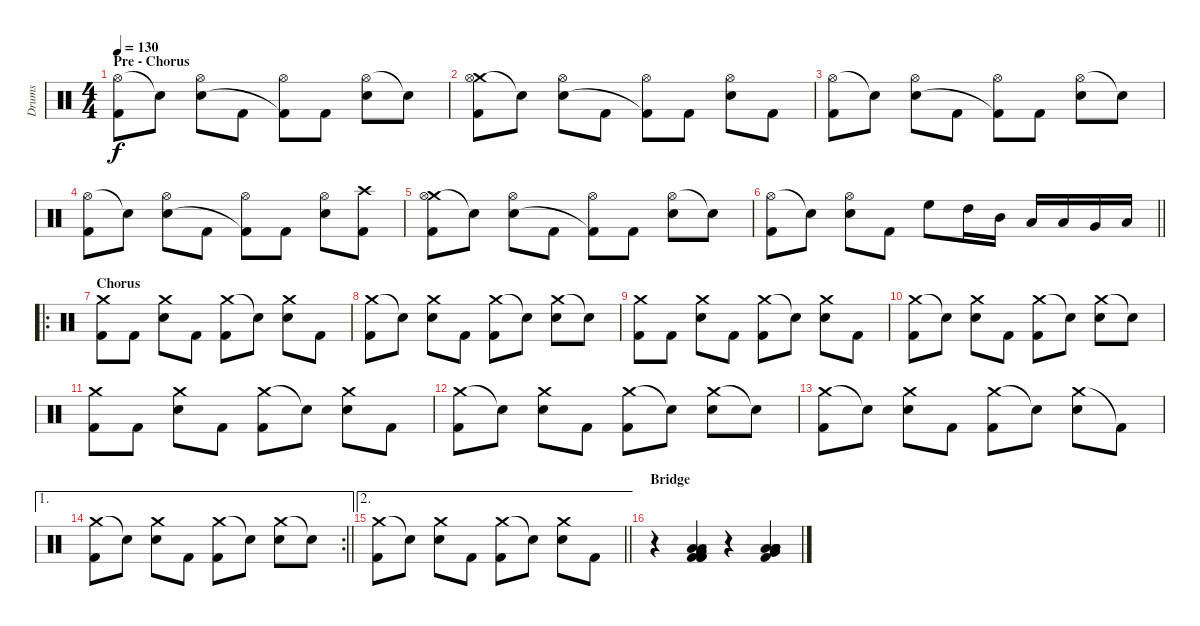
\track ("Drums" "Drums") {instrument percussion}
\staff {score}
\articulation defaults
\ts (4 4)
\section ("" "Pre - Chorus")
\tempo 130
\clef neutral
\ks c
("Hi-Hat (open)" "Kick (hit) 2").8{dy f} "Snare (hit)"{t}.8 ("Hi-Hat (open)" "Electric Snare (hit)").8 "Kick (hit) 2".8 ("Hi-Hat (open)" "Kick (hit) 2"{t}).8 "Kick (hit) 2".8 ("Hi-Hat (open)" "Electric Snare (hit)").8 "Snare (hit)"{t}.8 |
("Crash medium (hit)" "Hi-Hat (open)" "Kick (hit) 2").8 "Snare (hit)"{t}.8 ("Hi-Hat (open)" "Electric Snare (hit)").8 "Kick (hit) 2".8 ("Hi-Hat (open)" "Kick (hit) 2"{t}).8 "Kick (hit) 2".8 ("Hi-Hat (open)" "Electric Snare (hit)").8 "Kick (hit) 2".8 |
("Hi-Hat (open)" "Kick (hit) 2").8 "Snare (hit)"{t}.8 ("Hi-Hat (open)" "Electric Snare (hit)").8 "Kick (hit) 2".8 ("Hi-Hat (open)" "Kick (hit) 2"{t}).8 "Kick (hit) 2".8 ("Hi-Hat (open)" "Electric Snare (hit)").8 "Snare (hit)"{t}.8 |
("Hi-Hat (open)" "Kick (hit) 2").8 "Snare (hit)"{t}.8 ("Hi-Hat (open)" "Electric Snare (hit)").8 "Kick (hit) 2".8 ("Hi-Hat (open)" "Kick (hit) 2"{t}).8 "Kick (hit) 2".8 ("Hi-Hat (open)" "Electric Snare (hit)").8 ("Crash high (hit)" "Kick (hit) 2").8 |
("Crash medium (hit)" "Hi-Hat (open)" "Kick (hit) 2").8 "Snare (hit)"{t}.8 ("Hi-Hat (open)" "Electric Snare (hit)").8 "Kick (hit) 2".8 ("Hi-Hat (open)" "Kick (hit) 2"{t}).8 "Kick (hit) 2".8 ("Hi-Hat (open)" "Electric Snare (hit)").8 "Snare (hit)"{t}.8 |
\barLineRight lightlight
("Hi-Hat (open)" "Kick (hit) 2").8 "Snare (hit)"{t}.8 ("Hi-Hat (open)" "Electric Snare (hit)").8 "Kick (hit) 2".8 "High Floor Tom (hit)".8 "High Tom (hit)".16 "Mid Tom (hit)".16 "Low Tom (hit)".16 "Low Tom (hit)".16 "Very Low Tom (hit)".16 "Low Floor Tom (hit)".16 |
\ro
\section ("" "Chorus")
("Crash medium (hit)" "Kick (hit) 2").8 "Kick (hit) 2".8 ("Crash medium (hit)" "Electric Snare (hit)").8 "Kick (hit) 2".8 ("Crash medium (hit)" "Kick (hit) 2").8 "Snare (hit)"{t}.8 ("Crash medium (hit)" "Electric Snare (hit)").8 "Kick (hit) 2".8 |
("Crash medium (hit)" "Kick (hit) 2").8 "Snare (hit)"{t}.8 ("Crash medium (hit)" "Electric Snare (hit)").8 "Kick (hit) 2".8 ("Crash medium (hit)" "Kick (hit) 2").8 "Snare (hit)"{t}.8 ("Crash medium (hit)" "Electric Snare (hit)").8 "Snare (hit)"{t}.8 |
("Crash medium (hit)" "Kick (hit) 2").8 "Kick (hit) 2".8 ("Crash medium (hit)" "Electric Snare (hit)").8 "Kick (hit) 2".8 ("Crash medium (hit)" "Kick (hit) 2").8 "Snare (hit)"{t}.8 ("Crash medium (hit)" "Electric Snare (hit)").8 "Kick (hit) 2".8 |
("Crash medium (hit)" "Kick (hit) 2").8 "Snare (hit)"{t}.8 ("Crash medium (hit)" "Electric Snare (hit)").8 "Kick (hit) 2".8 ("Crash medium (hit)" "Kick (hit) 2").8 "Snare (hit)"{t}.8 ("Crash medium (hit)" "Electric Snare (hit)").8 "Snare (hit)"{t}.8 |
("Crash medium (hit)" "Kick (hit) 2").8 "Kick (hit) 2".8 ("Crash medium (hit)" "Electric Snare (hit)").8 "Kick (hit) 2".8 ("Crash medium (hit)" "Kick (hit) 2").8 "Snare (hit)"{t}.8 ("Crash medium (hit)" "Electric Snare (hit)").8 "Kick (hit) 2".8 |
("Crash medium (hit)" "Kick (hit) 2").8 "Snare (hit)"{t}.8 ("Crash medium (hit)" "Electric Snare (hit)").8 "Kick (hit) 2".8 ("Crash medium (hit)" "Kick (hit) 2").8 "Snare (hit)"{t}.8 ("Crash medium (hit)" "Electric Snare (hit)").8 "Snare (hit)"{t}.8 |
("Crash medium (hit)" "Kick (hit) 2").8 "Snare (hit)"{t}.8 ("Crash medium (hit)" "Electric Snare (hit)").8 "Kick (hit) 2".8 ("Crash medium (hit)" "Kick (hit) 2").8 "Snare (hit)"{t}.8 ("Crash medium (hit)" "Electric Snare (hit)").8 "Kick (hit) 2"{t}.8 |
\ae 1
\rc 2
\barLineRight lightlight
("Crash medium (hit)" "Kick (hit) 2").8 "Electric Snare (hit)"{t}.8 ("Crash medium (hit)" "Electric Snare (hit)").8 "Kick (hit) 2".8 ("Crash medium (hit)" "Kick (hit) 2").8 "Electric Snare (hit)"{t}.8 ("Crash medium (hit)" "Electric Snare (hit)").8 "Snare (hit)"{t}.8 |
\ae 2
\barLineRight lightlight
("Crash medium (hit)" "Kick (hit) 2").8 "Snare (hit)"{t}.8 ("Crash medium (hit)" "Electric Snare (hit)").8 "Kick (hit) 2".8 ("Crash medium (hit)" "Kick (hit) 2").8 "Snare (hit)"{t}.8 ("Crash medium (hit)" "Electric Snare (hit)").8 "Kick (hit) 2".8 |
\section ("" "Bridge")
r.4 ("Kick (hit) 2" "Kick (hit) 2" "Kick (hit) 2" "Low Tom (hit)" "Very Low Tom (hit)" "Low Floor Tom (hit)").4 r.4 ("Low Floor Tom (hit)" "Low Floor Tom (hit)" "Kick (hit) 2" "Low Tom (hit)" "Very Low Tom (hit)" "Low Floor Tom (hit)").4
